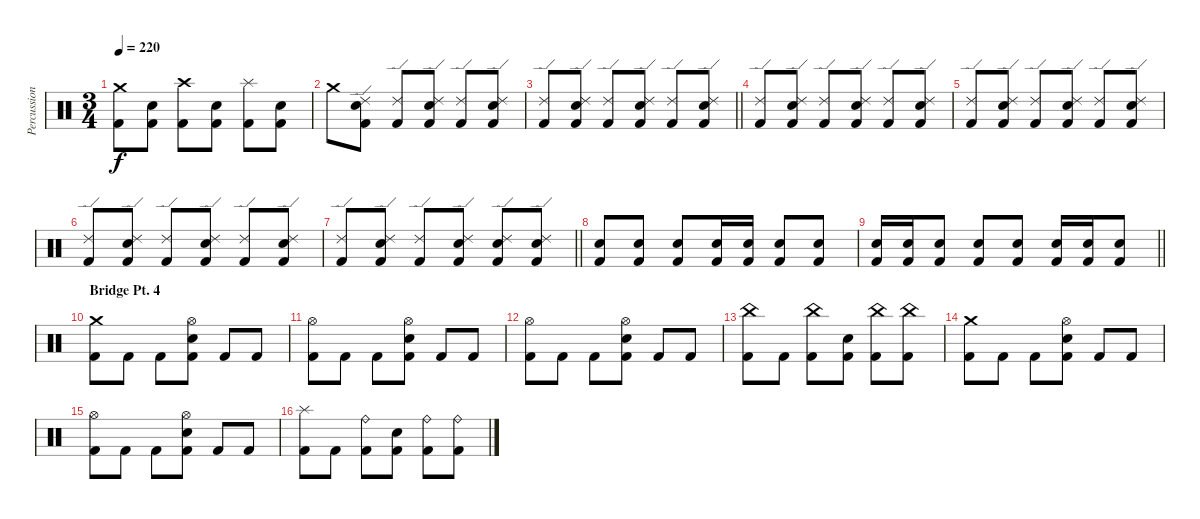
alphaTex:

\track ("Percussion" "Percussion") {instrument percussion}
\staff {score}
\articulation defaults
\ts (3 4)
\tempo 220
\clef neutral
\ks c
("Crash medium (hit)" "Kick (hit) 2").8{dy f} ("Electric Snare (hit)" "Kick (hit) 2").8 ("Crash high (hit)" "Kick (hit) 2").8 ("Electric Snare (hit)" "Kick (hit) 2").8 ("Splash (hit)" "Kick (hit) 2").8 ("Electric Snare (hit)" "Kick (hit) 2").8 |
"Crash medium (hit)".8 ("Ride (edge) 2" "Electric Snare (hit)" "Kick (hit) 2").8 ("Ride (edge) 2" "Kick (hit) 2").8 ("Ride (edge) 2" "Electric Snare (hit)" "Kick (hit) 2").8 ("Ride (edge) 2" "Kick (hit) 2").8 ("Ride (edge) 2" "Electric Snare (hit)" "Kick (hit) 2").8 |
\barLineRight lightlight
("Ride (edge) 2" "Kick (hit) 2").8 ("Ride (edge) 2" "Electric Snare (hit)" "Kick (hit) 2").8 ("Ride (edge) 2" "Kick (hit) 2").8 ("Ride (edge) 2" "Electric Snare (hit)" "Kick (hit) 2").8 ("Ride (edge) 2" "Kick (hit) 2").8 ("Ride (edge) 2" "Electric Snare (hit)" "Kick (hit) 2").8 |
("Ride (edge) 2" "Kick (hit) 2").8 ("Ride (edge) 2" "Electric Snare (hit)" "Kick (hit) 2").8 ("Ride (edge) 2" "Kick (hit) 2").8 ("Ride (edge) 2" "Electric Snare (hit)" "Kick (hit) 2").8 ("Ride (edge) 2" "Kick (hit) 2").8 ("Ride (edge) 2" "Electric Snare (hit)" "Kick (hit) 2").8 |
("Ride (edge) 2" "Kick (hit) 2").8 ("Ride (edge) 2" "Electric Snare (hit)" "Kick (hit) 2").8 ("Ride (edge) 2" "Kick (hit) 2").8 ("Ride (edge) 2" "Electric Snare (hit)" "Kick (hit) 2").8 ("Ride (edge) 2" "Kick (hit) 2").8 ("Ride (edge) 2" "Electric Snare (hit)" "Kick (hit) 2").8 |
("Ride (edge) 2" "Kick (hit) 2").8 ("Ride (edge) 2" "Electric Snare (hit)" "Kick (hit) 2").8 ("Ride (edge) 2" "Kick (hit) 2").8 ("Ride (edge) 2" "Electric Snare (hit)" "Kick (hit) 2").8 ("Ride (edge) 2" "Kick (hit) 2").8 ("Ride (edge) 2" "Electric Snare (hit)" "Kick (hit) 2").8 |
\barLineRight lightlight
("Ride (edge) 2" "Kick (hit) 2").8 ("Ride (edge) 2" "Electric Snare (hit)" "Kick (hit) 2").8 ("Ride (edge) 2" "Kick (hit) 2").8 ("Ride (edge) 2" "Electric Snare (hit)" "Kick (hit) 2").8 ("Ride (edge) 2" "Electric Snare (hit)" "Kick (hit) 2").8 ("Ride (edge) 2" "Electric Snare (hit)" "Kick (hit) 2").8 |
("Electric Snare (hit)" "Kick (hit) 2").8 ("Electric Snare (hit)" "Kick (hit) 2").8 ("Electric Snare (hit)" "Kick (hit) 2").8 ("Electric Snare (hit)" "Kick (hit) 2").16 ("Electric Snare (hit)" "Kick (hit) 2").16 ("Electric Snare (hit)" "Kick (hit) 2").8 ("Electric Snare (hit)" "Kick (hit) 2").8 |
\barLineRight lightlight
("Electric Snare (hit)" "Kick (hit) 2").16 ("Electric Snare (hit)" "Kick (hit) 2").16 ("Electric Snare (hit)" "Kick (hit) 2").8 ("Electric Snare (hit)" "Kick (hit) 2").8 ("Electric Snare (hit)" "Kick (hit) 2").8 ("Electric Snare (hit)" "Kick (hit) 2").16 ("Electric Snare (hit)" "Kick (hit) 2").16 ("Electric Snare (hit)" "Kick (hit) 2").8 |
\section ("" "Bridge Pt. 4")
("Crash medium (hit)" "Kick (hit) 2").8 "Kick (hit) 2".8 "Kick (hit) 2".8 ("Hi-Hat (open)" "Electric Snare (hit)" "Kick (hit) 2").8 "Kick (hit) 2".8 "Kick (hit) 2".8 |
("Hi-Hat (open)" "Kick (hit) 2").8 "Kick (hit) 2".8 "Kick (hit) 2".8 ("Hi-Hat (open)" "Electric Snare (hit)" "Kick (hit) 2").8 "Kick (hit) 2".8 "Kick (hit) 2".8 |
("Hi-Hat (open)" "Kick (hit) 2").8 "Kick (hit) 2".8 "Kick (hit) 2".8 ("Hi-Hat (open)" "Electric Snare (hit)" "Kick (hit) 2").8 "Kick (hit) 2".8 "Kick (hit) 2".8 |
("China (hit)" "Kick (hit) 2").8 "Kick (hit) 2".8 ("China (hit)" "Kick (hit) 2").8 ("Electric Snare (hit)" "Kick (hit) 2").8 ("China (hit)" "Kick (hit) 2").8 ("China (hit)" "Kick (hit) 2").8 |
("Crash medium (hit)" "Kick (hit) 2").8 "Kick (hit) 2".8 "Kick (hit) 2".8 ("Hi-Hat (open)" "Electric Snare (hit)" "Kick (hit) 2").8 "Kick (hit) 2".8 "Kick (hit) 2".8 |
("Hi-Hat (open)" "Kick (hit) 2").8 "Kick (hit) 2".8 "Kick (hit) 2".8 ("Hi-Hat (open)" "Electric Snare (hit)" "Kick (hit) 2").8 "Kick (hit) 2".8 "Kick (hit) 2".8 |
("Splash (hit)" "Kick (hit) 2").8 "Kick (hit) 2".8 ("Ride (bell)" "Kick (hit) 2").8 ("Electric Snare (hit)" "Kick (hit) 2").8 ("Ride (bell)" "Kick (hit) 2").8 ("Ride (bell)" "Kick (hit) 2").8
